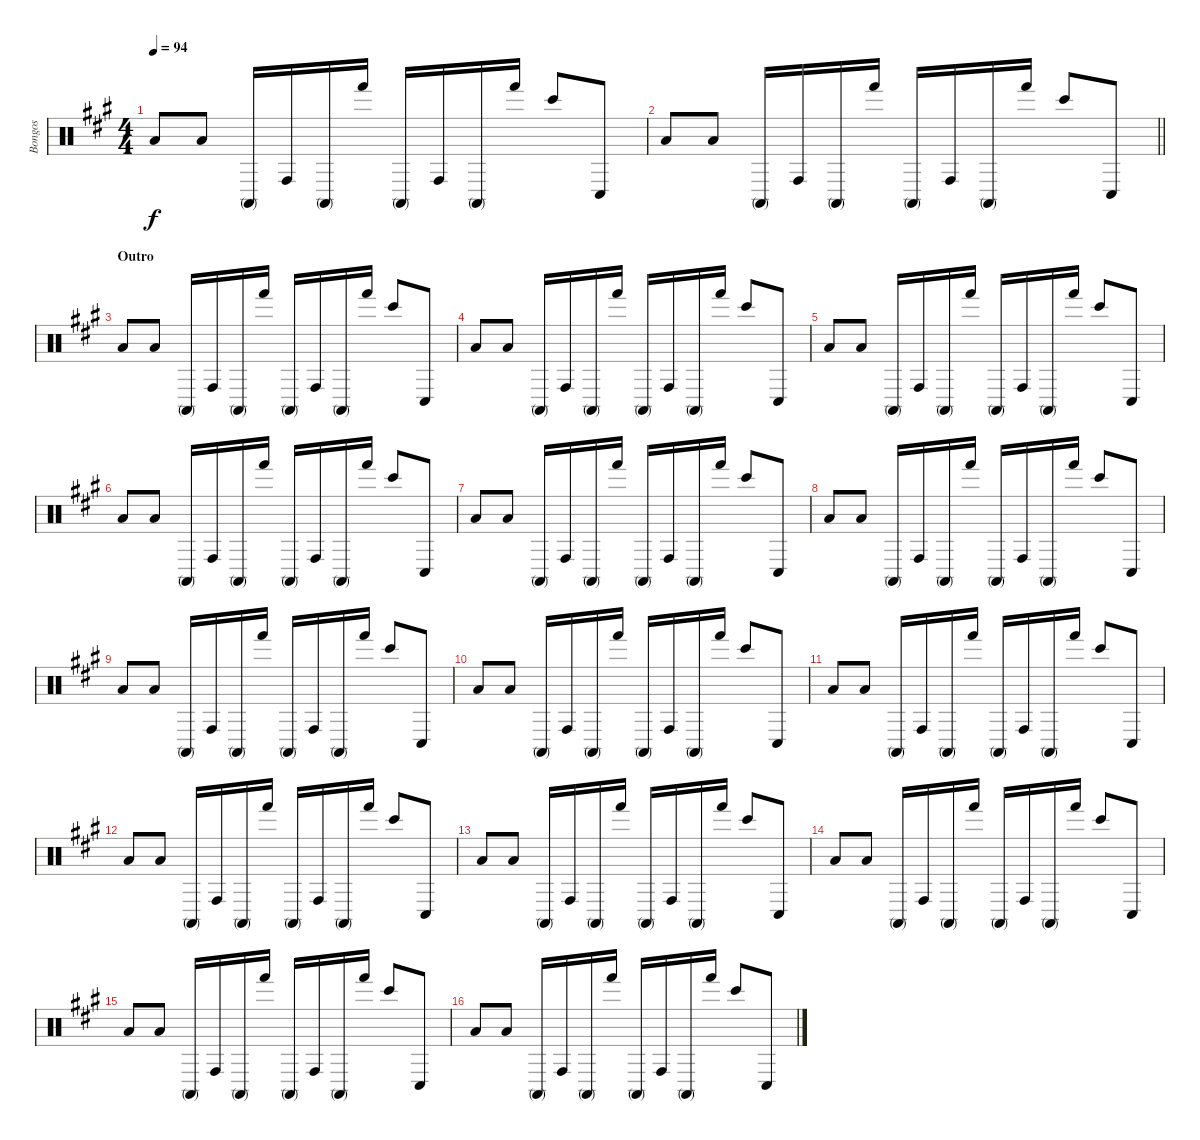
\track ("Bongos" "Bongos") {instrument percussion}
\staff {score}
\articulation defaults
\ts (4 4)
\tempo 94
\clef neutral
\ks a "Low Floor Tom (hit)".8{dy f} "Low Floor Tom (hit)".8 "Conga high (mute)".16 "Conga high (hit)".16 "Conga high (mute)".16 "Hand (hit)".16 "Conga high (mute)".16 "Conga high (hit)".16 "Conga high (mute)".16 "Hand (hit)".16 "Bongo High (hit)".8 "Conga low (hit)".8
|
\barLineRight lightlight "Low Floor Tom (hit)".8{volume 5} "Low Floor Tom (hit)".8 "Conga high (mute)".16 "Conga high (hit)".16 "Conga high (mute)".16 "Hand (hit)".16 "Conga high (mute)".16 "Conga high (hit)".16 "Conga high (mute)".16 "Hand (hit)".16 "Bongo High (hit)".8 "Conga low (hit)".8
|
\section ("" "Outro")
"Low Floor Tom (hit)".8 "Low Floor Tom (hit)".8 "Conga high (mute)".16 "Conga high (hit)".16 "Conga high (mute)".16 "Hand (hit)".16 "Conga high (mute)".16 "Conga high (hit)".16 "Conga high (mute)".16 "Hand (hit)".16 "Bongo High (hit)".8 "Conga low (hit)".8 |
"Low Floor Tom (hit)".8{volume 5} "Low Floor Tom (hit)".8 "Conga high (mute)".16 "Conga high (hit)".16 "Conga high (mute)".16 "Hand (hit)".16 "Conga high (mute)".16 "Conga high (hit)".16 "Conga high (mute)".16 "Hand (hit)".16 "Bongo High (hit)".8 "Conga low (hit)".8 |
"Low Floor Tom (hit)".8 "Low Floor Tom (hit)".8 "Conga high (mute)".16 "Conga high (hit)".16 "Conga high (mute)".16 "Hand (hit)".16 "Conga high (mute)".16 "Conga high (hit)".16 "Conga high (mute)".16 "Hand (hit)".16 "Bongo High (hit)".8 "Conga low (hit)".8 |
"Low Floor Tom (hit)".8 "Low Floor Tom (hit)".8 "Conga high (mute)".16 "Conga high (hit)".16 "Conga high (mute)".16 "Hand (hit)".16 "Conga high (mute)".16 "Conga high (hit)".16 "Conga high (mute)".16 "Hand (hit)".16 "Bongo High (hit)".8 "Conga low (hit)".8 |
"Low Floor Tom (hit)".8 "Low Floor Tom (hit)".8 "Conga high (mute)".16 "Conga high (hit)".16 "Conga high (mute)".16 "Hand (hit)".16 "Conga high (mute)".16 "Conga high (hit)".16 "Conga high (mute)".16 "Hand (hit)".16 "Bongo High (hit)".8 "Conga low (hit)".8 |
"Low Floor Tom (hit)".8 "Low Floor Tom (hit)".8 "Conga high (mute)".16 "Conga high (hit)".16 "Conga high (mute)".16 "Hand (hit)".16 "Conga high (mute)".16 "Conga high (hit)".16 "Conga high (mute)".16 "Hand (hit)".16 "Bongo High (hit)".8 "Conga low (hit)".8 |
"Low Floor Tom (hit)".8 "Low Floor Tom (hit)".8 "Conga high (mute)".16 "Conga high (hit)".16 "Conga high (mute)".16 "Hand (hit)".16 "Conga high (mute)".16 "Conga high (hit)".16 "Conga high (mute)".16 "Hand (hit)".16 "Bongo High (hit)".8 "Conga low (hit)".8 |
"Low Floor Tom (hit)".8 "Low Floor Tom (hit)".8 "Conga high (mute)".16 "Conga high (hit)".16 "Conga high (mute)".16 "Hand (hit)".16 "Conga high (mute)".16 "Conga high (hit)".16 "Conga high (mute)".16 "Hand (hit)".16 "Bongo High (hit)".8 "Conga low (hit)".8 |
"Low Floor Tom (hit)".8 "Low Floor Tom (hit)".8 "Conga high (mute)".16 "Conga high (hit)".16 "Conga high (mute)".16 "Hand (hit)".16 "Conga high (mute)".16 "Conga high (hit)".16 "Conga high (mute)".16 "Hand (hit)".16 "Bongo High (hit)".8 "Conga low (hit)".8 |
"Low Floor Tom (hit)".8 "Low Floor Tom (hit)".8 "Conga high (mute)".16 "Conga high (hit)".16 "Conga high (mute)".16 "Hand (hit)".16 "Conga high (mute)".16 "Conga high (hit)".16 "Conga high (mute)".16 "Hand (hit)".16 "Bongo High (hit)".8 "Conga low (hit)".8 |
"Low Floor Tom (hit)".8{volume 5} "Low Floor Tom (hit)".8 "Conga high (mute)".16 "Conga high (hit)".16 "Conga high (mute)".16 "Hand (hit)".16 "Conga high (mute)".16 "Conga high (hit)".16 "Conga high (mute)".16 "Hand (hit)".16 "Bongo High (hit)".8 "Conga low (hit)".8 |
"Low Floor Tom (hit)".8 "Low Floor Tom (hit)".8 "Conga high (mute)".16 "Conga high (hit)".16 "Conga high (mute)".16 "Hand (hit)".16 "Conga high (mute)".16 "Conga high (hit)".16 "Conga high (mute)".16 "Hand (hit)".16 "Bongo High (hit)".8 "Conga low (hit)".8 |
"Low Floor Tom (hit)".8 "Low Floor Tom (hit)".8 "Conga high (mute)".16 "Conga high (hit)".16 "Conga high (mute)".16 "Hand (hit)".16 "Conga high (mute)".16 "Conga high (hit)".16 "Conga high (mute)".16 "Hand (hit)".16 "Bongo High (hit)".8 "Conga low (hit)".8 |
"Low Floor Tom (hit)".8 "Low Floor Tom (hit)".8 "Conga high (mute)".16 "Conga high (hit)".16 "Conga high (mute)".16 "Hand (hit)".16 "Conga high (mute)".16 "Conga high (hit)".16 "Conga high (mute)".16 "Hand (hit)".16 "Bongo High (hit)".8 "Conga low (hit)".8
